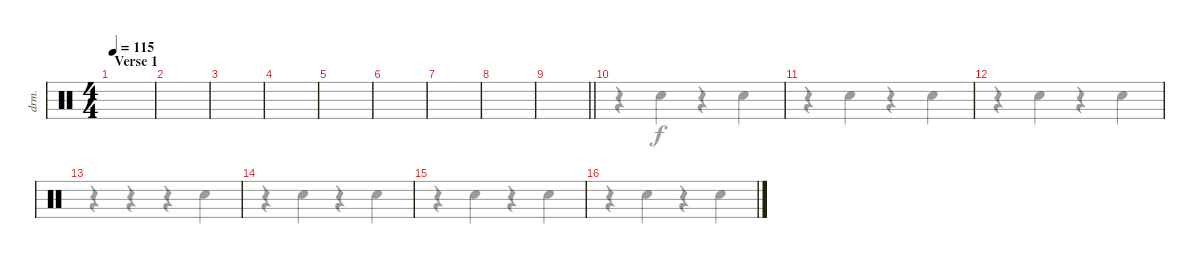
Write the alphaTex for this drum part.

\defaultSystemsLayout 4
\bracketExtendMode groupsimilarinstruments
\otherSystemsTrackNameOrientation horizontal
\chordDiagramsInScore
\track ("Drumkit" "drm.") {instrument percussion}
\staff {score}
\articulation defaults
\voice
\ts (4 4)
\section ("" "Verse 1")
\tempo 115
\clef neutral
\ks c
|
|
|
|
|
|
|
|
\barLineRight lightlight
|
|
|
|
|
|
|
\voice
\clef neutral
\ks c
|
|
|
|
|
|
|
|
\barLineRight lightlight
|
r.4 "Snare (hit) 2".4 r.4 "Snare (hit) 2".4 |
r.4 "Snare (hit) 2".4 r.4 "Snare (hit) 2".4 |
r.4 "Snare (hit) 2".4 r.4 "Snare (hit) 2".4 |
r.4 r.4 r.4 "Snare (hit) 2".4 |
r.4 "Snare (hit) 2".4 r.4 "Snare (hit) 2".4 |
r.4 "Snare (hit) 2".4 r.4 "Snare (hit) 2".4 |
r.4 "Snare (hit) 2".4 r.4 "Snare (hit) 2".4
